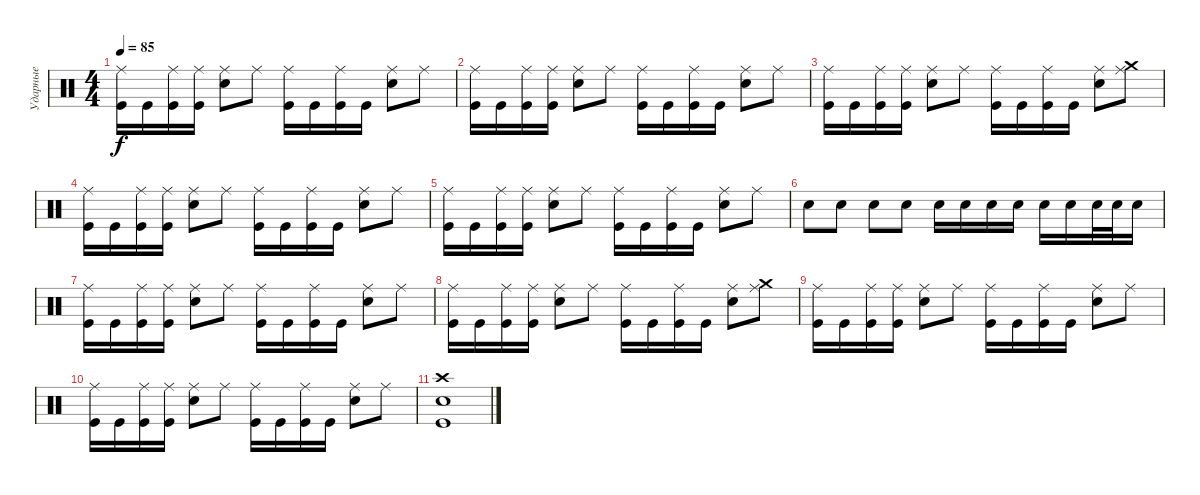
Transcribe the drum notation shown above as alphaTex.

\track ("Ударные" "Ударные") {instrument percussion}
\staff {score}
\articulation defaults
\ts (4 4)
\tempo 85
\clef neutral
\ks c
("Ride (middle)" "Kick (hit)").16{dy f} "Kick (hit)".16 ("Ride (middle)" "Kick (hit)").16 ("Ride (middle)" "Kick (hit)").16 ("Ride (middle)" "Electric Snare (hit)").8 "Ride (middle)".8 ("Ride (middle)" "Kick (hit)").16 "Kick (hit)".16 ("Ride (middle)" "Kick (hit)").16 "Kick (hit)".16 ("Ride (middle)" "Electric Snare (hit)").8 "Ride (middle)".8 |
("Ride (middle)" "Kick (hit)").16 "Kick (hit)".16 ("Ride (middle)" "Kick (hit)").16 ("Ride (middle)" "Kick (hit)").16 ("Ride (middle)" "Electric Snare (hit)").8 "Ride (middle)".8 ("Ride (middle)" "Kick (hit)").16 "Kick (hit)".16 ("Ride (middle)" "Kick (hit)").16 "Kick (hit)".16 ("Ride (middle)" "Electric Snare (hit)").8 "Ride (middle)".8 |
("Ride (middle)" "Kick (hit)").16 "Kick (hit)".16 ("Ride (middle)" "Kick (hit)").16 ("Ride (middle)" "Kick (hit)").16 ("Ride (middle)" "Electric Snare (hit)").8 "Ride (middle)".8 ("Ride (middle)" "Kick (hit)").16 "Kick (hit)".16 ("Ride (middle)" "Kick (hit)").16 "Kick (hit)".16 ("Ride (middle)" "Electric Snare (hit)").8 ("Ride (middle)" "Crash medium (hit)").8 |
("Ride (middle)" "Kick (hit)").16 "Kick (hit)".16 ("Ride (middle)" "Kick (hit)").16 ("Ride (middle)" "Kick (hit)").16 ("Ride (middle)" "Electric Snare (hit)").8 "Ride (middle)".8 ("Ride (middle)" "Kick (hit)").16 "Kick (hit)".16 ("Ride (middle)" "Kick (hit)").16 "Kick (hit)".16 ("Ride (middle)" "Electric Snare (hit)").8 "Ride (middle)".8 |
("Ride (middle)" "Kick (hit)").16 "Kick (hit)".16 ("Ride (middle)" "Kick (hit)").16 ("Ride (middle)" "Kick (hit)").16 ("Ride (middle)" "Electric Snare (hit)").8 "Ride (middle)".8 ("Ride (middle)" "Kick (hit)").16 "Kick (hit)".16 ("Ride (middle)" "Kick (hit)").16 "Kick (hit)".16 ("Ride (middle)" "Electric Snare (hit)").8 "Ride (middle)".8 |
"Electric Snare (hit)".8 "Electric Snare (hit)".8 "Electric Snare (hit)".8 "Electric Snare (hit)".8 "Electric Snare (hit)".16 "Electric Snare (hit)".16 "Electric Snare (hit)".16 "Electric Snare (hit)".16 "Electric Snare (hit)".16 "Electric Snare (hit)".16 "Electric Snare (hit)".32 "Electric Snare (hit)".32 "Electric Snare (hit)".16 |
("Ride (middle)" "Kick (hit)").16 "Kick (hit)".16 ("Ride (middle)" "Kick (hit)").16 ("Ride (middle)" "Kick (hit)").16 ("Ride (middle)" "Electric Snare (hit)").8 "Ride (middle)".8 ("Ride (middle)" "Kick (hit)").16 "Kick (hit)".16 ("Ride (middle)" "Kick (hit)").16 "Kick (hit)".16 ("Ride (middle)" "Electric Snare (hit)").8 "Ride (middle)".8 |
("Ride (middle)" "Kick (hit)").16 "Kick (hit)".16 ("Ride (middle)" "Kick (hit)").16 ("Ride (middle)" "Kick (hit)").16 ("Ride (middle)" "Electric Snare (hit)").8 "Ride (middle)".8 ("Ride (middle)" "Kick (hit)").16 "Kick (hit)".16 ("Ride (middle)" "Kick (hit)").16 "Kick (hit)".16 ("Ride (middle)" "Electric Snare (hit)").8 ("Ride (middle)" "Crash medium (hit)").8 |
("Ride (middle)" "Kick (hit)").16 "Kick (hit)".16 ("Ride (middle)" "Kick (hit)").16 ("Ride (middle)" "Kick (hit)").16 ("Ride (middle)" "Electric Snare (hit)").8 "Ride (middle)".8 ("Ride (middle)" "Kick (hit)").16 "Kick (hit)".16 ("Ride (middle)" "Kick (hit)").16 "Kick (hit)".16 ("Ride (middle)" "Electric Snare (hit)").8 "Ride (middle)".8 |
("Ride (middle)" "Kick (hit)").16 "Kick (hit)".16 ("Ride (middle)" "Kick (hit)").16 ("Ride (middle)" "Kick (hit)").16 ("Ride (middle)" "Electric Snare (hit)").8 "Ride (middle)".8 ("Ride (middle)" "Kick (hit)").16 "Kick (hit)".16 ("Ride (middle)" "Kick (hit)").16 "Kick (hit)".16 ("Ride (middle)" "Electric Snare (hit)").8 "Ride (middle)".8 |
("Crash high (hit)" "Electric Snare (hit)" "Kick (hit)").1
